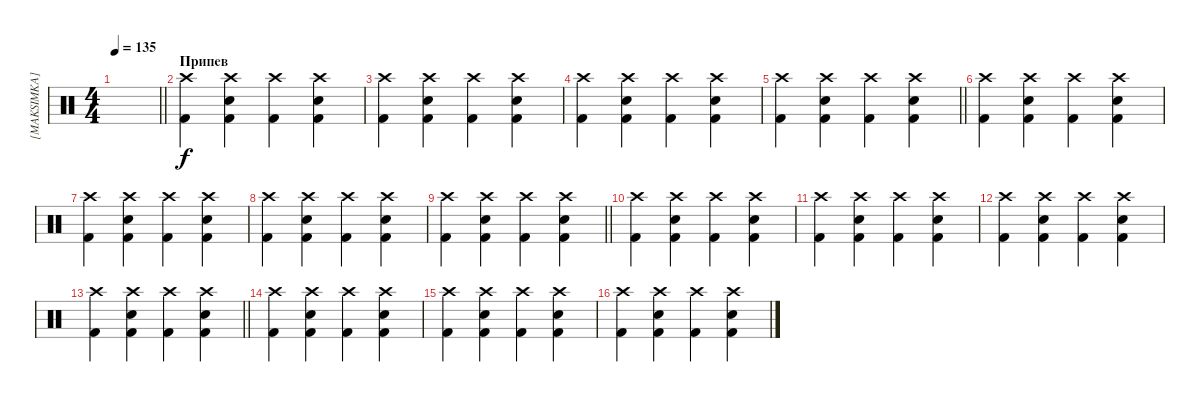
\track ("[MAKSIMKA]" "[MAKSIMKA]") {instrument percussion}
\staff {score}
\articulation defaults
\ts (4 4)
\tempo 135
\clef neutral
\barLineRight lightlight
\ks c
|
\section ("" "Припев")
("Crash high (hit)" "Kick (hit) 2").4 ("Crash high (hit)" "Kick (hit) 2" "Snare (hit) 2").4 ("Crash high (hit)" "Kick (hit) 2").4 ("Crash high (hit)" "Kick (hit) 2" "Snare (hit) 2").4 |
("Crash high (hit)" "Kick (hit) 2").4 ("Crash high (hit)" "Kick (hit) 2" "Snare (hit) 2").4 ("Crash high (hit)" "Kick (hit) 2").4 ("Crash high (hit)" "Kick (hit) 2" "Snare (hit) 2").4 |
("Crash high (hit)" "Kick (hit) 2").4 ("Crash high (hit)" "Kick (hit) 2" "Snare (hit) 2").4 ("Crash high (hit)" "Kick (hit) 2").4 ("Crash high (hit)" "Kick (hit) 2" "Snare (hit) 2").4 |
\barLineRight lightlight
("Crash high (hit)" "Kick (hit) 2").4 ("Crash high (hit)" "Kick (hit) 2" "Snare (hit) 2").4 ("Crash high (hit)" "Kick (hit) 2").4 ("Crash high (hit)" "Kick (hit) 2" "Snare (hit) 2").4 |
("Crash high (hit)" "Kick (hit) 2").4 ("Crash high (hit)" "Kick (hit) 2" "Snare (hit) 2").4 ("Crash high (hit)" "Kick (hit) 2").4 ("Crash high (hit)" "Kick (hit) 2" "Snare (hit) 2").4 |
("Crash high (hit)" "Kick (hit) 2").4 ("Crash high (hit)" "Kick (hit) 2" "Snare (hit) 2").4 ("Crash high (hit)" "Kick (hit) 2").4 ("Crash high (hit)" "Kick (hit) 2" "Snare (hit) 2").4 |
("Crash high (hit)" "Kick (hit) 2").4 ("Crash high (hit)" "Kick (hit) 2" "Snare (hit) 2").4 ("Crash high (hit)" "Kick (hit) 2").4 ("Crash high (hit)" "Kick (hit) 2" "Snare (hit) 2").4 |
\barLineRight lightlight
("Crash high (hit)" "Kick (hit) 2").4 ("Crash high (hit)" "Kick (hit) 2" "Snare (hit) 2").4 ("Crash high (hit)" "Kick (hit) 2").4 ("Crash high (hit)" "Kick (hit) 2" "Snare (hit) 2").4 |
("Crash high (hit)" "Kick (hit) 2").4 ("Crash high (hit)" "Kick (hit) 2" "Snare (hit) 2").4 ("Crash high (hit)" "Kick (hit) 2").4 ("Crash high (hit)" "Kick (hit) 2" "Snare (hit) 2").4 |
("Crash high (hit)" "Kick (hit) 2").4 ("Crash high (hit)" "Kick (hit) 2" "Snare (hit) 2").4 ("Crash high (hit)" "Kick (hit) 2").4 ("Crash high (hit)" "Kick (hit) 2" "Snare (hit) 2").4 |
("Crash high (hit)" "Kick (hit) 2").4 ("Crash high (hit)" "Kick (hit) 2" "Snare (hit) 2").4 ("Crash high (hit)" "Kick (hit) 2").4 ("Crash high (hit)" "Kick (hit) 2" "Snare (hit) 2").4 |
\barLineRight lightlight
("Crash high (hit)" "Kick (hit) 2").4 ("Crash high (hit)" "Kick (hit) 2" "Snare (hit) 2").4 ("Crash high (hit)" "Kick (hit) 2").4 ("Crash high (hit)" "Kick (hit) 2" "Snare (hit) 2").4 |
("Crash high (hit)" "Kick (hit) 2").4 ("Crash high (hit)" "Kick (hit) 2" "Snare (hit) 2").4 ("Crash high (hit)" "Kick (hit) 2").4 ("Crash high (hit)" "Kick (hit) 2" "Snare (hit) 2").4 |
("Crash high (hit)" "Kick (hit) 2").4 ("Crash high (hit)" "Kick (hit) 2" "Snare (hit) 2").4 ("Crash high (hit)" "Kick (hit) 2").4 ("Crash high (hit)" "Kick (hit) 2" "Snare (hit) 2").4 |
("Crash high (hit)" "Kick (hit) 2").4 ("Crash high (hit)" "Kick (hit) 2" "Snare (hit) 2").4 ("Crash high (hit)" "Kick (hit) 2").4 ("Crash high (hit)" "Kick (hit) 2" "Snare (hit) 2").4
